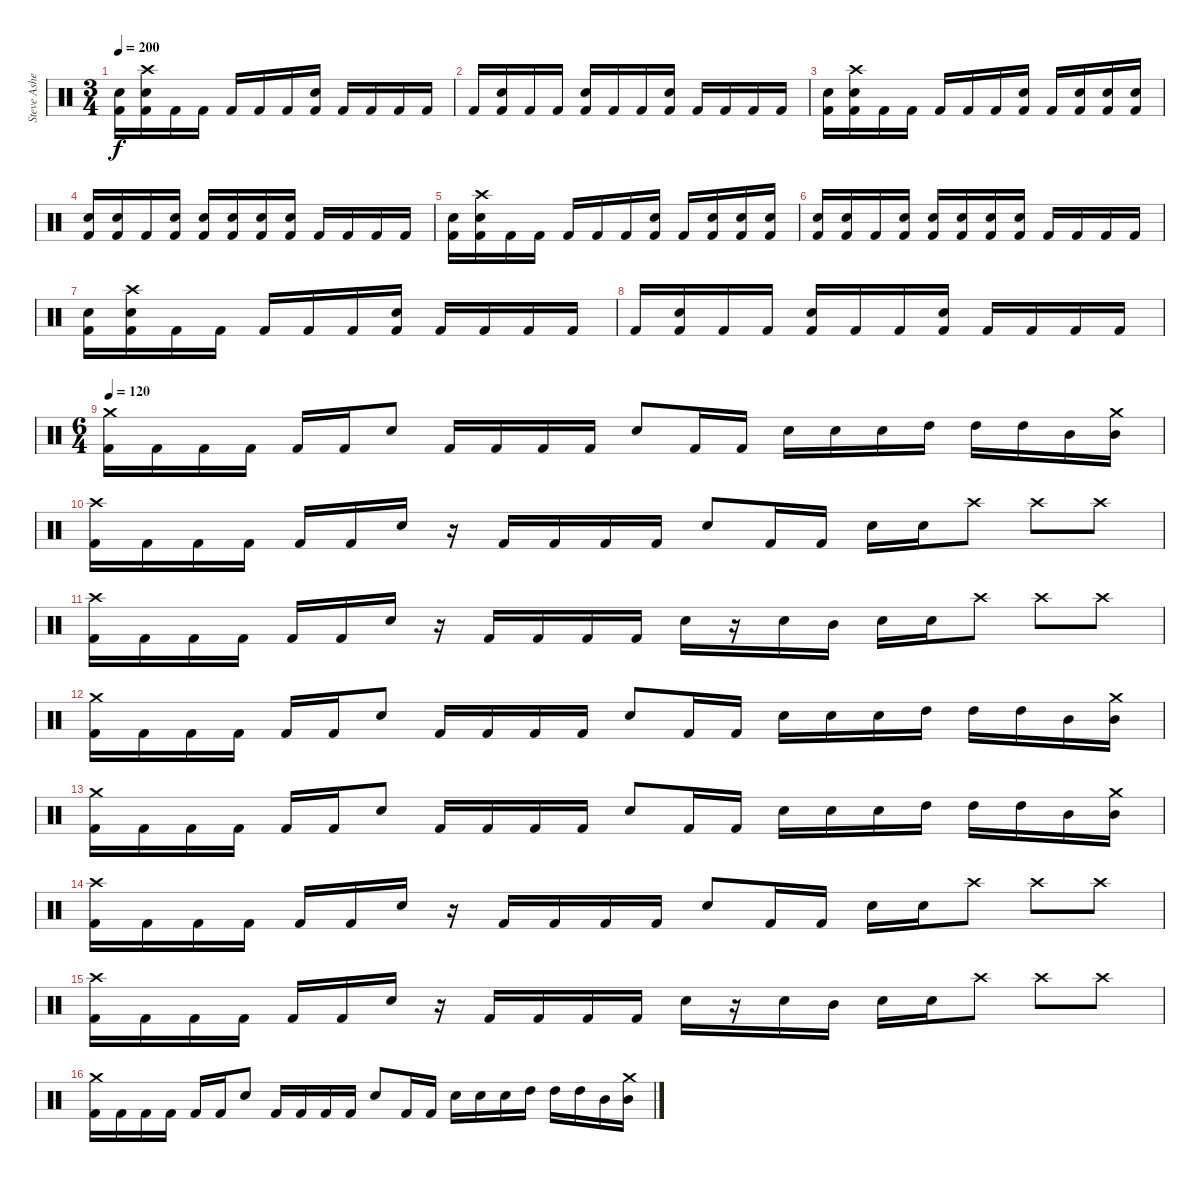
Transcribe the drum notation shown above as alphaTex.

\track ("Steve Asheim" "Steve Ashe") {instrument percussion}
\staff {score}
\articulation defaults
\ts (3 4)
\tempo 200
\clef neutral
\ks c
("Electric Snare (hit)" "Kick (hit) 2").16{dy f} ("Crash high (hit)" "Electric Snare (hit)" "Kick (hit) 2").16 "Kick (hit) 2".16 "Kick (hit) 2".16 "Kick (hit) 2".16 "Kick (hit) 2".16 "Kick (hit) 2".16 ("Electric Snare (hit)" "Kick (hit) 2").16 "Kick (hit) 2".16 "Kick (hit) 2".16 "Kick (hit) 2".16 "Kick (hit) 2".16 |
"Kick (hit) 2".16 ("Electric Snare (hit)" "Kick (hit) 2").16 "Kick (hit) 2".16 "Kick (hit) 2".16 ("Electric Snare (hit)" "Kick (hit) 2").16 "Kick (hit) 2".16 "Kick (hit) 2".16 ("Electric Snare (hit)" "Kick (hit) 2").16 "Kick (hit) 2".16 "Kick (hit) 2".16 "Kick (hit) 2".16 "Kick (hit) 2".16 |
("Electric Snare (hit)" "Kick (hit) 2").16 ("Crash high (hit)" "Electric Snare (hit)" "Kick (hit) 2").16 "Kick (hit) 2".16 "Kick (hit) 2".16 "Kick (hit) 2".16 "Kick (hit) 2".16 "Kick (hit) 2".16 ("Electric Snare (hit)" "Kick (hit) 2").16 "Kick (hit) 2".16 ("Snare (hit) 2" "Kick (hit) 2").16 ("Snare (hit) 2" "Kick (hit) 2").16 ("Snare (hit) 2" "Kick (hit) 2").16 |
("Snare (hit) 2" "Kick (hit) 2").16 ("Electric Snare (hit)" "Kick (hit) 2").16 "Kick (hit) 2".16 ("Snare (hit) 2" "Kick (hit) 2").16 ("Snare (hit) 2" "Kick (hit) 2").16 ("Snare (hit) 2" "Kick (hit) 2").16 ("Snare (hit) 2" "Kick (hit) 2").16 ("Electric Snare (hit)" "Kick (hit) 2").16 "Kick (hit) 2".16 "Kick (hit) 2".16 "Kick (hit) 2".16 "Kick (hit) 2".16 |
("Electric Snare (hit)" "Kick (hit) 2").16 ("Crash high (hit)" "Electric Snare (hit)" "Kick (hit) 2").16 "Kick (hit) 2".16 "Kick (hit) 2".16 "Kick (hit) 2".16 "Kick (hit) 2".16 "Kick (hit) 2".16 ("Electric Snare (hit)" "Kick (hit) 2").16 "Kick (hit) 2".16 ("Snare (hit) 2" "Kick (hit) 2").16 ("Snare (hit) 2" "Kick (hit) 2").16 ("Snare (hit) 2" "Kick (hit) 2").16 |
("Snare (hit) 2" "Kick (hit) 2").16 ("Electric Snare (hit)" "Kick (hit) 2").16 "Kick (hit) 2".16 ("Snare (hit) 2" "Kick (hit) 2").16 ("Snare (hit) 2" "Kick (hit) 2").16 ("Snare (hit) 2" "Kick (hit) 2").16 ("Snare (hit) 2" "Kick (hit) 2").16 ("Electric Snare (hit)" "Kick (hit) 2").16 "Kick (hit) 2".16 "Kick (hit) 2".16 "Kick (hit) 2".16 "Kick (hit) 2".16 |
("Electric Snare (hit)" "Kick (hit) 2").16 ("Crash high (hit)" "Electric Snare (hit)" "Kick (hit) 2").16 "Kick (hit) 2".16 "Kick (hit) 2".16 "Kick (hit) 2".16 "Kick (hit) 2".16 "Kick (hit) 2".16 ("Electric Snare (hit)" "Kick (hit) 2").16 "Kick (hit) 2".16 "Kick (hit) 2".16 "Kick (hit) 2".16 "Kick (hit) 2".16 |
"Kick (hit) 2".16 ("Electric Snare (hit)" "Kick (hit) 2").16 "Kick (hit) 2".16 "Kick (hit) 2".16 ("Electric Snare (hit)" "Kick (hit) 2").16 "Kick (hit) 2".16 "Kick (hit) 2".16 ("Electric Snare (hit)" "Kick (hit) 2").16 "Kick (hit) 2".16 "Kick (hit) 2".16 "Kick (hit) 2".16 "Kick (hit) 2".16 |
\ts (6 4)
\tempo 120
("Crash medium (hit)" "Kick (hit) 2").16 "Kick (hit) 2".16 "Kick (hit) 2".16 "Kick (hit) 2".16 "Kick (hit) 2".16 "Kick (hit) 2".16 "Electric Snare (hit)".8 "Kick (hit) 2".16 "Kick (hit) 2".16 "Kick (hit) 2".16 "Kick (hit) 2".16 "Electric Snare (hit)".8 "Kick (hit) 2".16 "Kick (hit) 2".16 "Snare (hit) 2".16 "Snare (hit) 2".16 "Snare (hit) 2".16 "High Tom (hit)".16 "High Tom (hit)".16 "High Tom (hit)".16 "Mid Tom (hit)".16 ("Crash medium (hit)" "Mid Tom (hit)").16 |
("Crash high (hit)" "Kick (hit) 2").16 "Kick (hit) 2".16 "Kick (hit) 2".16 "Kick (hit) 2".16 "Kick (hit) 2".16 "Kick (hit) 2".16 "Electric Snare (hit)".16 r.16 "Kick (hit) 2".16 "Kick (hit) 2".16 "Kick (hit) 2".16 "Kick (hit) 2".16 "Electric Snare (hit)".8 "Kick (hit) 2".16 "Kick (hit) 2".16 "Snare (hit) 2".16 "Snare (hit) 2".16 "Crash high (hit)".8 "Crash high (hit)".8 "Crash high (hit)".8 |
("Crash high (hit)" "Kick (hit) 2").16 "Kick (hit) 2".16 "Kick (hit) 2".16 "Kick (hit) 2".16 "Kick (hit) 2".16 "Kick (hit) 2".16 "Electric Snare (hit)".16 r.16 "Kick (hit) 2".16 "Kick (hit) 2".16 "Kick (hit) 2".16 "Kick (hit) 2".16 "Electric Snare (hit)".16 r.16 "Snare (hit) 2".16 "Mid Tom (hit)".16 "Snare (hit) 2".16 "Snare (hit) 2".16 "Crash high (hit)".8 "Crash high (hit)".8 "Crash high (hit)".8 |
("Crash medium (hit)" "Kick (hit) 2").16 "Kick (hit) 2".16 "Kick (hit) 2".16 "Kick (hit) 2".16 "Kick (hit) 2".16 "Kick (hit) 2".16 "Electric Snare (hit)".8 "Kick (hit) 2".16 "Kick (hit) 2".16 "Kick (hit) 2".16 "Kick (hit) 2".16 "Electric Snare (hit)".8 "Kick (hit) 2".16 "Kick (hit) 2".16 "Snare (hit) 2".16 "Snare (hit) 2".16 "Snare (hit) 2".16 "High Tom (hit)".16 "High Tom (hit)".16 "High Tom (hit)".16 "Mid Tom (hit)".16 ("Crash medium (hit)" "Mid Tom (hit)").16 |
("Crash medium (hit)" "Kick (hit) 2").16 "Kick (hit) 2".16 "Kick (hit) 2".16 "Kick (hit) 2".16 "Kick (hit) 2".16 "Kick (hit) 2".16 "Electric Snare (hit)".8 "Kick (hit) 2".16 "Kick (hit) 2".16 "Kick (hit) 2".16 "Kick (hit) 2".16 "Electric Snare (hit)".8 "Kick (hit) 2".16 "Kick (hit) 2".16 "Snare (hit) 2".16 "Snare (hit) 2".16 "Snare (hit) 2".16 "High Tom (hit)".16 "High Tom (hit)".16 "High Tom (hit)".16 "Mid Tom (hit)".16 ("Crash medium (hit)" "Mid Tom (hit)").16 |
("Crash high (hit)" "Kick (hit) 2").16 "Kick (hit) 2".16 "Kick (hit) 2".16 "Kick (hit) 2".16 "Kick (hit) 2".16 "Kick (hit) 2".16 "Electric Snare (hit)".16 r.16 "Kick (hit) 2".16 "Kick (hit) 2".16 "Kick (hit) 2".16 "Kick (hit) 2".16 "Electric Snare (hit)".8 "Kick (hit) 2".16 "Kick (hit) 2".16 "Snare (hit) 2".16 "Snare (hit) 2".16 "Crash high (hit)".8 "Crash high (hit)".8 "Crash high (hit)".8 |
("Crash high (hit)" "Kick (hit) 2").16 "Kick (hit) 2".16 "Kick (hit) 2".16 "Kick (hit) 2".16 "Kick (hit) 2".16 "Kick (hit) 2".16 "Electric Snare (hit)".16 r.16 "Kick (hit) 2".16 "Kick (hit) 2".16 "Kick (hit) 2".16 "Kick (hit) 2".16 "Electric Snare (hit)".16 r.16 "Snare (hit) 2".16 "Mid Tom (hit)".16 "Snare (hit) 2".16 "Snare (hit) 2".16 "Crash high (hit)".8 "Crash high (hit)".8 "Crash high (hit)".8 |
("Crash medium (hit)" "Kick (hit) 2").16 "Kick (hit) 2".16 "Kick (hit) 2".16 "Kick (hit) 2".16 "Kick (hit) 2".16 "Kick (hit) 2".16 "Electric Snare (hit)".8 "Kick (hit) 2".16 "Kick (hit) 2".16 "Kick (hit) 2".16 "Kick (hit) 2".16 "Electric Snare (hit)".8 "Kick (hit) 2".16 "Kick (hit) 2".16 "Snare (hit) 2".16 "Snare (hit) 2".16 "Snare (hit) 2".16 "High Tom (hit)".16 "High Tom (hit)".16 "High Tom (hit)".16 "Mid Tom (hit)".16 ("Crash medium (hit)" "Mid Tom (hit)").16
